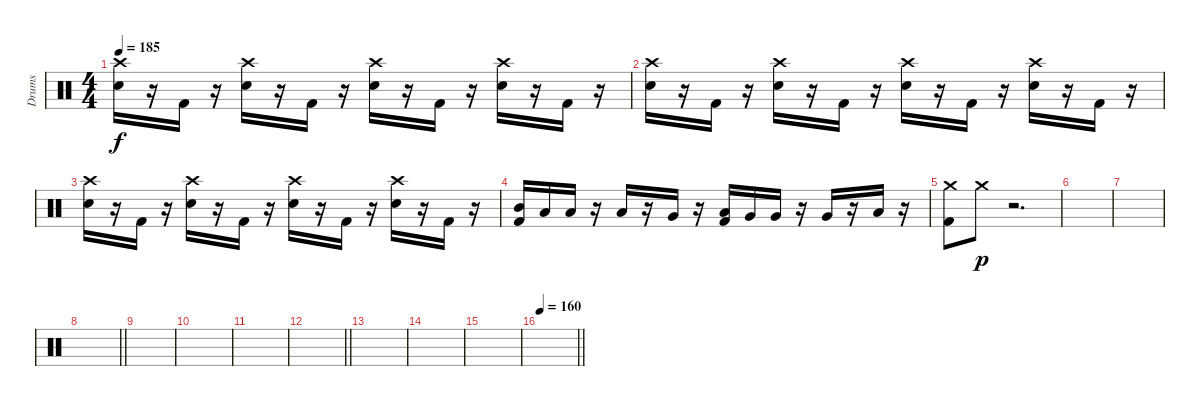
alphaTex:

\track ("Drums" "Drums") {instrument percussion}
\staff {score}
\articulation defaults
\ts (4 4)
\tempo 185
\clef neutral
\ks c
("Crash high (hit)" "Electric Snare (hit)").16{dy f} r.16 "Kick (hit) 2".16 r.16 ("Crash high (hit)" "Electric Snare (hit)").16 r.16 "Kick (hit) 2".16 r.16 ("Crash high (hit)" "Electric Snare (hit)").16 r.16 "Kick (hit) 2".16 r.16 ("Crash high (hit)" "Electric Snare (hit)").16 r.16 "Kick (hit) 2".16 r.16 |
("Crash high (hit)" "Electric Snare (hit)").16 r.16 "Kick (hit) 2".16 r.16 ("Crash high (hit)" "Electric Snare (hit)").16 r.16 "Kick (hit) 2".16 r.16 ("Crash high (hit)" "Electric Snare (hit)").16 r.16 "Kick (hit) 2".16 r.16 ("Crash high (hit)" "Electric Snare (hit)").16 r.16 "Kick (hit) 2".16 r.16 |
("Crash high (hit)" "Electric Snare (hit)").16 r.16 "Kick (hit) 2".16 r.16 ("Crash high (hit)" "Electric Snare (hit)").16 r.16 "Kick (hit) 2".16 r.16 ("Crash high (hit)" "Electric Snare (hit)").16 r.16 "Kick (hit) 2".16 r.16 ("Crash high (hit)" "Electric Snare (hit)").16 r.16 "Kick (hit) 2".16 r.16 |
("Mid Tom (hit)" "Kick (hit) 2").16 "Low Tom (hit)".16 "Low Tom (hit)".16 r.16 "Low Tom (hit)".16 r.16 "Very Low Tom (hit)".16 r.16 ("Low Tom (hit)" "Kick (hit) 2").16 "Very Low Tom (hit)".16 "Very Low Tom (hit)".16 r.16 "Very Low Tom (hit)".16 r.16 "Low Floor Tom (hit)".16 r.16 |
("Crash medium (hit)" "Kick (hit) 2").8 "Crash medium (hit)".8{dy p} r.2{d} |
|
|
\barLineRight lightlight
|
|
|
|
\barLineRight lightlight
|
|
|
|
\tempo 160
\barLineRight lightlight
